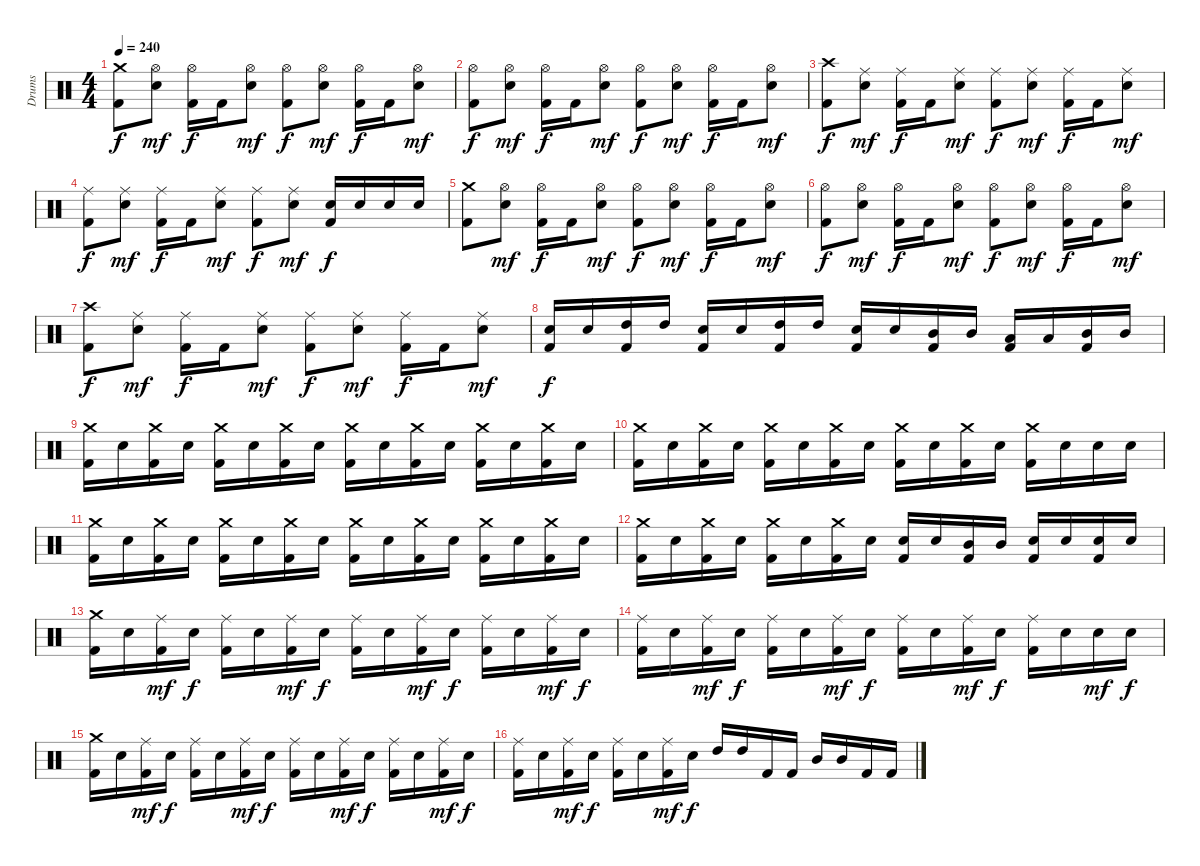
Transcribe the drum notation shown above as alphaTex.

\track ("Drums" "Drums") {instrument percussion}
\staff {score}
\articulation defaults
\ts (4 4)
\tempo 240
\clef neutral
\ks c
("Crash medium (hit)" "Kick (hit) 2").8{dy f} ("Hi-Hat (open)" "Electric Snare (hit)").8{dy mf} ("Hi-Hat (open)" "Kick (hit) 2").16{dy f} "Kick (hit) 2".16 ("Hi-Hat (open)" "Electric Snare (hit)").8{dy mf} ("Hi-Hat (open)" "Kick (hit) 2").8{dy f} ("Hi-Hat (open)" "Electric Snare (hit)").8{dy mf} ("Hi-Hat (open)" "Kick (hit) 2").16{dy f} "Kick (hit) 2".16 ("Hi-Hat (open)" "Electric Snare (hit)").8{dy mf} |
("Hi-Hat (open)" "Kick (hit) 2").8{dy f} ("Hi-Hat (open)" "Electric Snare (hit)").8{dy mf} ("Hi-Hat (open)" "Kick (hit) 2").16{dy f} "Kick (hit) 2".16 ("Hi-Hat (open)" "Electric Snare (hit)").8{dy mf} ("Hi-Hat (open)" "Kick (hit) 2").8{dy f} ("Hi-Hat (open)" "Electric Snare (hit)").8{dy mf} ("Hi-Hat (open)" "Kick (hit) 2").16{dy f} "Kick (hit) 2".16 ("Hi-Hat (open)" "Electric Snare (hit)").8{dy mf} |
("Crash high (hit)" "Kick (hit) 2").8{dy f} ("Ride (middle)" "Electric Snare (hit)").8{dy mf} ("Ride (middle)" "Kick (hit) 2").16{dy f} "Kick (hit) 2".16 ("Ride (middle)" "Electric Snare (hit)").8{dy mf} ("Ride (middle)" "Kick (hit) 2").8{dy f} ("Ride (middle)" "Electric Snare (hit)").8{dy mf} ("Ride (middle)" "Kick (hit) 2").16{dy f} "Kick (hit) 2".16 ("Ride (middle)" "Electric Snare (hit)").8{dy mf} |
("Ride (middle)" "Kick (hit) 2").8{dy f} ("Ride (middle)" "Electric Snare (hit)").8{dy mf} ("Ride (middle)" "Kick (hit) 2").16{dy f} "Kick (hit) 2".16 ("Ride (middle)" "Electric Snare (hit)").8{dy mf} ("Ride (middle)" "Kick (hit) 2").8{dy f} ("Ride (middle)" "Electric Snare (hit)").8{dy mf} ("Electric Snare (hit)" "Kick (hit) 2").16{dy f} "Electric Snare (hit)".16 "Electric Snare (hit)".16 "Electric Snare (hit)".16 |
("Crash medium (hit)" "Kick (hit) 2").8 ("Hi-Hat (open)" "Electric Snare (hit)").8{dy mf} ("Hi-Hat (open)" "Kick (hit) 2").16{dy f} "Kick (hit) 2".16 ("Hi-Hat (open)" "Electric Snare (hit)").8{dy mf} ("Hi-Hat (open)" "Kick (hit) 2").8{dy f} ("Hi-Hat (open)" "Electric Snare (hit)").8{dy mf} ("Hi-Hat (open)" "Kick (hit) 2").16{dy f} "Kick (hit) 2".16 ("Hi-Hat (open)" "Electric Snare (hit)").8{dy mf} |
("Hi-Hat (open)" "Kick (hit) 2").8{dy f} ("Hi-Hat (open)" "Electric Snare (hit)").8{dy mf} ("Hi-Hat (open)" "Kick (hit) 2").16{dy f} "Kick (hit) 2".16 ("Hi-Hat (open)" "Electric Snare (hit)").8{dy mf} ("Hi-Hat (open)" "Kick (hit) 2").8{dy f} ("Hi-Hat (open)" "Electric Snare (hit)").8{dy mf} ("Hi-Hat (open)" "Kick (hit) 2").16{dy f} "Kick (hit) 2".16 ("Hi-Hat (open)" "Electric Snare (hit)").8{dy mf} |
("Crash high (hit)" "Kick (hit) 2").8{dy f} ("Ride (middle)" "Electric Snare (hit)").8{dy mf} ("Ride (middle)" "Kick (hit) 2").16{dy f} "Kick (hit) 2".16 ("Ride (middle)" "Electric Snare (hit)").8{dy mf} ("Ride (middle)" "Kick (hit) 2").8{dy f} ("Ride (middle)" "Electric Snare (hit)").8{dy mf} ("Ride (middle)" "Kick (hit) 2").16{dy f} "Kick (hit) 2".16 ("Ride (middle)" "Electric Snare (hit)").8{dy mf} |
("Electric Snare (hit)" "Kick (hit) 2").16{dy f} "Electric Snare (hit)".16 ("High Tom (hit)" "Kick (hit) 2").16 "High Tom (hit)".16 ("Electric Snare (hit)" "Kick (hit) 2").16 "Electric Snare (hit)".16 ("High Tom (hit)" "Kick (hit) 2").16 "High Tom (hit)".16 ("Electric Snare (hit)" "Kick (hit) 2").16 "Electric Snare (hit)".16 ("Mid Tom (hit)" "Kick (hit) 2").16 "Mid Tom (hit)".16 ("Low Tom (hit)" "Kick (hit) 2").16 "Low Tom (hit)".16 ("Mid Tom (hit)" "Kick (hit) 2").16 "Mid Tom (hit)".16 |
("Crash medium (hit)" "Kick (hit) 2").16 "Electric Snare (hit)".16 ("Crash medium (hit)" "Kick (hit) 2").16 "Electric Snare (hit)".16 ("Crash medium (hit)" "Kick (hit) 2").16 "Electric Snare (hit)".16 ("Crash medium (hit)" "Kick (hit) 2").16 "Electric Snare (hit)".16 ("Crash medium (hit)" "Kick (hit) 2").16 "Electric Snare (hit)".16 ("Crash medium (hit)" "Kick (hit) 2").16 "Electric Snare (hit)".16 ("Crash medium (hit)" "Kick (hit) 2").16 "Electric Snare (hit)".16 ("Crash medium (hit)" "Kick (hit) 2").16 "Electric Snare (hit)".16 |
("Crash medium (hit)" "Kick (hit) 2").16 "Electric Snare (hit)".16 ("Crash medium (hit)" "Kick (hit) 2").16 "Electric Snare (hit)".16 ("Crash medium (hit)" "Kick (hit) 2").16 "Electric Snare (hit)".16 ("Crash medium (hit)" "Kick (hit) 2").16 "Electric Snare (hit)".16 ("Crash medium (hit)" "Kick (hit) 2").16 "Electric Snare (hit)".16 ("Crash medium (hit)" "Kick (hit) 2").16 "Electric Snare (hit)".16 ("Crash medium (hit)" "Kick (hit) 2").16 "Electric Snare (hit)".16 "Electric Snare (hit)".16 "Electric Snare (hit)".16 |
("Crash medium (hit)" "Kick (hit) 2").16 "Electric Snare (hit)".16 ("Crash medium (hit)" "Kick (hit) 2").16 "Electric Snare (hit)".16 ("Crash medium (hit)" "Kick (hit) 2").16 "Electric Snare (hit)".16 ("Crash medium (hit)" "Kick (hit) 2").16 "Electric Snare (hit)".16 ("Crash medium (hit)" "Kick (hit) 2").16 "Electric Snare (hit)".16 ("Crash medium (hit)" "Kick (hit) 2").16 "Electric Snare (hit)".16 ("Crash medium (hit)" "Kick (hit) 2").16 "Electric Snare (hit)".16 ("Crash medium (hit)" "Kick (hit) 2").16 "Electric Snare (hit)".16 |
("Crash medium (hit)" "Kick (hit) 2").16 "Electric Snare (hit)".16 ("Crash medium (hit)" "Kick (hit) 2").16 "Electric Snare (hit)".16 ("Crash medium (hit)" "Kick (hit) 2").16 "Electric Snare (hit)".16 ("Crash medium (hit)" "Kick (hit) 2").16 "Electric Snare (hit)".16 ("Electric Snare (hit)" "Kick (hit) 2").16 "Electric Snare (hit)".16 ("Mid Tom (hit)" "Kick (hit) 2").16 "Mid Tom (hit)".16 ("Electric Snare (hit)" "Kick (hit) 2").16 "Electric Snare (hit)".16 ("Electric Snare (hit)" "Kick (hit) 2").16 "Electric Snare (hit)".16 |
("Crash medium (hit)" "Kick (hit) 2").16 "Electric Snare (hit)".16 ("Ride (middle)" "Kick (hit) 2").16{dy mf} "Electric Snare (hit)".16{dy f} ("Ride (middle)" "Kick (hit) 2").16 "Electric Snare (hit)".16 ("Ride (middle)" "Kick (hit) 2").16{dy mf} "Electric Snare (hit)".16{dy f} ("Ride (middle)" "Kick (hit) 2").16 "Electric Snare (hit)".16 ("Ride (middle)" "Kick (hit) 2").16{dy mf} "Electric Snare (hit)".16{dy f} ("Ride (middle)" "Kick (hit) 2").16 "Electric Snare (hit)".16 ("Ride (middle)" "Kick (hit) 2").16{dy mf} "Electric Snare (hit)".16{dy f} |
("Ride (middle)" "Kick (hit) 2").16 "Electric Snare (hit)".16 ("Ride (middle)" "Kick (hit) 2").16{dy mf} "Electric Snare (hit)".16{dy f} ("Ride (middle)" "Kick (hit) 2").16 "Electric Snare (hit)".16 ("Ride (middle)" "Kick (hit) 2").16{dy mf} "Electric Snare (hit)".16{dy f} ("Ride (middle)" "Kick (hit) 2").16 "Electric Snare (hit)".16 ("Ride (middle)" "Kick (hit) 2").16{dy mf} "Electric Snare (hit)".16{dy f} ("Ride (middle)" "Kick (hit) 2").16 "Electric Snare (hit)".16 "Electric Snare (hit)".16{dy mf} "Electric Snare (hit)".16{dy f} |
("Crash medium (hit)" "Kick (hit) 2").16 "Electric Snare (hit)".16 ("Ride (middle)" "Kick (hit) 2").16{dy mf} "Electric Snare (hit)".16{dy f} ("Ride (middle)" "Kick (hit) 2").16 "Electric Snare (hit)".16 ("Ride (middle)" "Kick (hit) 2").16{dy mf} "Electric Snare (hit)".16{dy f} ("Ride (middle)" "Kick (hit) 2").16 "Electric Snare (hit)".16 ("Ride (middle)" "Kick (hit) 2").16{dy mf} "Electric Snare (hit)".16{dy f} ("Ride (middle)" "Kick (hit) 2").16 "Electric Snare (hit)".16 ("Ride (middle)" "Kick (hit) 2").16{dy mf} "Electric Snare (hit)".16{dy f} |
("Ride (middle)" "Kick (hit) 2").16 "Electric Snare (hit)".16 ("Ride (middle)" "Kick (hit) 2").16{dy mf} "Electric Snare (hit)".16{dy f} ("Ride (middle)" "Kick (hit) 2").16 "Electric Snare (hit)".16 ("Ride (middle)" "Kick (hit) 2").16{dy mf} "Electric Snare (hit)".16{dy f} "High Tom (hit)".16 "High Tom (hit)".16 "Kick (hit) 2".16 "Kick (hit) 2".16 "Mid Tom (hit)".16 "Mid Tom (hit)".16 "Kick (hit) 2".16 "Kick (hit) 2".16
